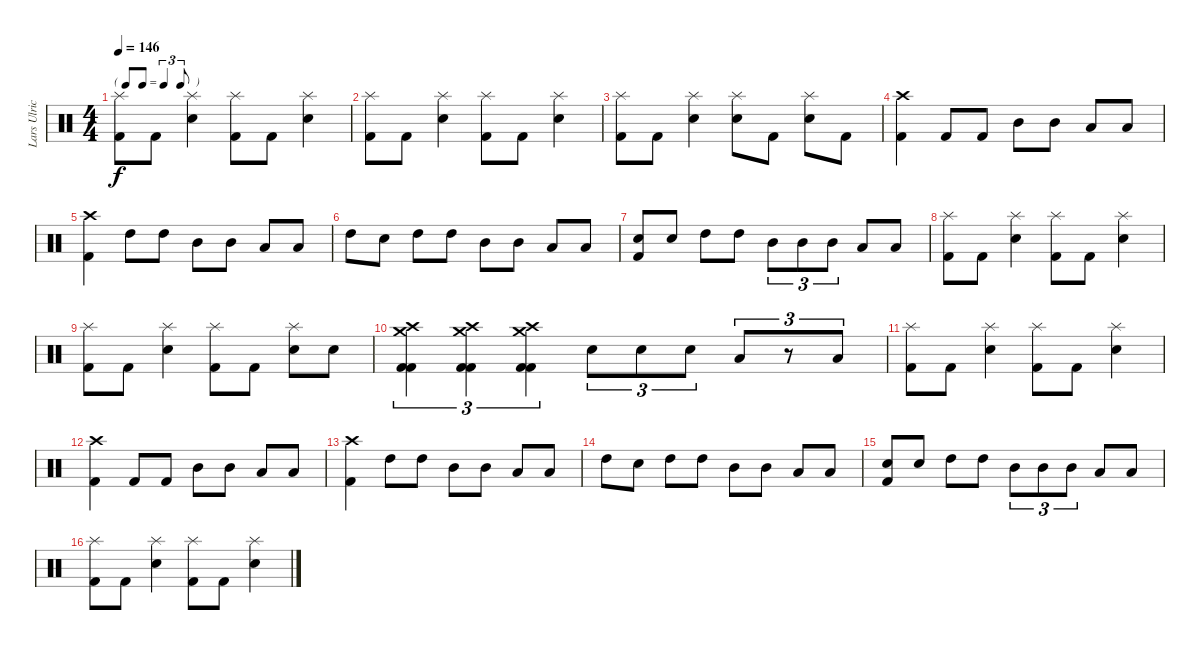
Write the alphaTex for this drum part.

\track ("Lars Ulrich" "Lars Ulric") {instrument percussion}
\staff {score}
\articulation defaults
\ts (4 4)
\tf triplet8th
\tempo 146
\clef neutral
\ks c
("Splash (hit)" "Kick (hit) 2").8{dy f} "Kick (hit) 2".8 ("Splash (hit)" "Snare (hit) 2").4 ("Splash (hit)" "Kick (hit) 2").8 "Kick (hit) 2".8 ("Splash (hit)" "Snare (hit) 2").4 |
("Splash (hit)" "Kick (hit) 2").8 "Kick (hit) 2".8 ("Splash (hit)" "Snare (hit) 2").4 ("Splash (hit)" "Kick (hit) 2").8 "Kick (hit) 2".8 ("Splash (hit)" "Snare (hit) 2").4 |
("Splash (hit)" "Kick (hit) 2").8 "Kick (hit) 2".8 ("Splash (hit)" "Snare (hit) 2").4 ("Splash (hit)" "Snare (hit) 2").8 "Kick (hit) 2".8 ("Splash (hit)" "Snare (hit) 2").8 "Kick (hit) 2".8 |
("Crash high (hit)" "Kick (hit) 2").4 "Kick (hit) 2".8 "Kick (hit) 2".8 "Mid Tom (hit)".8 "Mid Tom (hit)".8 "Low Tom (hit)".8 "Low Tom (hit)".8 |
("Crash high (hit)" "Kick (hit) 2").4 "High Tom (hit)".8 "High Tom (hit)".8 "Mid Tom (hit)".8 "Mid Tom (hit)".8 "Low Tom (hit)".8 "Low Tom (hit)".8 |
"High Tom (hit)".8 "Snare (hit) 2".8 "High Tom (hit)".8 "High Tom (hit)".8 "Mid Tom (hit)".8 "Mid Tom (hit)".8 "Low Tom (hit)".8 "Low Tom (hit)".8 |
("Snare (hit) 2" "Kick (hit) 2").8 "Snare (hit) 2".8 "High Tom (hit)".8 "High Tom (hit)".8 "Mid Tom (hit)".8{tu (3 2)} "Mid Tom (hit)".8{tu (3 2)} "Mid Tom (hit)".8{tu (3 2)} "Low Tom (hit)".8 "Low Tom (hit)".8 |
("Splash (hit)" "Kick (hit) 2").8 "Kick (hit) 2".8 ("Splash (hit)" "Snare (hit) 2").4 ("Splash (hit)" "Kick (hit) 2").8 "Kick (hit) 2".8 ("Splash (hit)" "Snare (hit) 2").4 |
("Splash (hit)" "Kick (hit) 2").8 "Kick (hit) 2".8 ("Splash (hit)" "Snare (hit) 2").4 ("Splash (hit)" "Kick (hit) 2").8 "Kick (hit) 2".8 ("Splash (hit)" "Snare (hit) 2").8 "Snare (hit) 2".8 |
("Crash high (hit)" "Crash medium (hit)" "Kick (hit) 2" "Kick (hit) 2").4{tu (3 2)} ("Crash high (hit)" "Crash medium (hit)" "Kick (hit) 2" "Kick (hit) 2").4{tu (3 2)} ("Crash high (hit)" "Crash medium (hit)" "Kick (hit) 2" "Kick (hit) 2").4{tu (3 2)} "Snare (hit) 2".8{tu (3 2)} "Snare (hit) 2".8{tu (3 2)} "Snare (hit) 2".8{tu (3 2)} "Low Tom (hit)".8{tu (3 2)} r.8{tu (3 2)} "Low Tom (hit)".8{tu (3 2)} |
("Splash (hit)" "Kick (hit) 2").8 "Kick (hit) 2".8 ("Splash (hit)" "Snare (hit) 2").4 ("Splash (hit)" "Kick (hit) 2").8 "Kick (hit) 2".8 ("Splash (hit)" "Snare (hit) 2").4 |
("Crash high (hit)" "Kick (hit) 2").4 "Kick (hit) 2".8 "Kick (hit) 2".8 "Mid Tom (hit)".8 "Mid Tom (hit)".8 "Low Tom (hit)".8 "Low Tom (hit)".8 |
("Crash high (hit)" "Kick (hit) 2").4 "High Tom (hit)".8 "High Tom (hit)".8 "Mid Tom (hit)".8 "Mid Tom (hit)".8 "Low Tom (hit)".8 "Low Tom (hit)".8 |
"High Tom (hit)".8 "Snare (hit) 2".8 "High Tom (hit)".8 "High Tom (hit)".8 "Mid Tom (hit)".8 "Mid Tom (hit)".8 "Low Tom (hit)".8 "Low Tom (hit)".8 |
("Snare (hit) 2" "Kick (hit) 2").8 "Snare (hit) 2".8 "High Tom (hit)".8 "High Tom (hit)".8 "Mid Tom (hit)".8{tu (3 2)} "Mid Tom (hit)".8{tu (3 2)} "Mid Tom (hit)".8{tu (3 2)} "Low Tom (hit)".8 "Low Tom (hit)".8 |
("Splash (hit)" "Kick (hit) 2").8 "Kick (hit) 2".8 ("Splash (hit)" "Snare (hit) 2").4 ("Splash (hit)" "Kick (hit) 2").8 "Kick (hit) 2".8 ("Splash (hit)" "Snare (hit) 2").4
